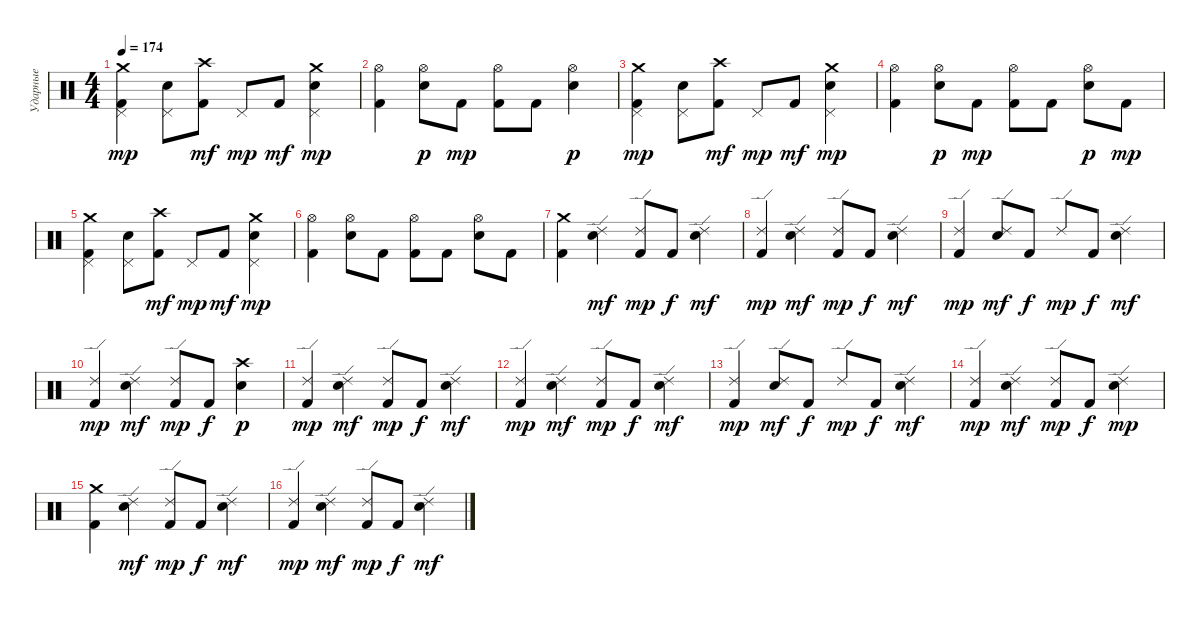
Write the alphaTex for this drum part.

\track ("Ударные" "Ударные") {instrument percussion}
\staff {score}
\articulation defaults
\ts (4 4)
\tempo 174
\clef neutral
\ks c
("Crash medium (hit)" "Kick (hit) 2" "Pedal Hi-Hat (hit)").4{dy mp} ("Electric Snare (hit)" "Pedal Hi-Hat (hit)").8 ("Crash high (hit)" "Kick (hit) 2").8{dy mf} "Pedal Hi-Hat (hit)".8{dy mp} "Kick (hit) 2".8{dy mf} ("Crash medium (hit)" "Electric Snare (hit)" "Pedal Hi-Hat (hit)").4{dy mp} |
("Hi-Hat (open)" "Kick (hit) 2").4 ("Hi-Hat (open)" "Electric Snare (hit)").8{dy p} "Kick (hit) 2".8{dy mp} ("Hi-Hat (open)" "Kick (hit) 2").8 "Kick (hit) 2".8 ("Hi-Hat (open)" "Electric Snare (hit)").4{dy p} |
("Crash medium (hit)" "Kick (hit) 2" "Pedal Hi-Hat (hit)").4{dy mp} ("Electric Snare (hit)" "Pedal Hi-Hat (hit)").8 ("Crash high (hit)" "Kick (hit) 2").8{dy mf} "Pedal Hi-Hat (hit)".8{dy mp} "Kick (hit) 2".8{dy mf} ("Crash medium (hit)" "Electric Snare (hit)" "Pedal Hi-Hat (hit)").4{dy mp} |
("Hi-Hat (open)" "Kick (hit) 2").4 ("Hi-Hat (open)" "Electric Snare (hit)").8{dy p} "Kick (hit) 2".8{dy mp} ("Hi-Hat (open)" "Kick (hit) 2").8 "Kick (hit) 2".8 ("Hi-Hat (open)" "Electric Snare (hit)").8{dy p} "Kick (hit) 2".8{dy mp} |
("Crash medium (hit)" "Kick (hit) 2" "Pedal Hi-Hat (hit)").4 ("Electric Snare (hit)" "Pedal Hi-Hat (hit)").8 ("Crash high (hit)" "Kick (hit) 2").8{dy mf} "Pedal Hi-Hat (hit)".8{dy mp} "Kick (hit) 2".8{dy mf} ("Crash medium (hit)" "Electric Snare (hit)" "Pedal Hi-Hat (hit)").4{dy mp} |
("Hi-Hat (open)" "Kick (hit) 2").4 ("Hi-Hat (open)" "Electric Snare (hit)").8 "Kick (hit) 2".8 ("Hi-Hat (open)" "Kick (hit) 2").8 "Kick (hit) 2".8 ("Hi-Hat (open)" "Electric Snare (hit)").8 "Kick (hit) 2".8 |
("Crash medium (hit)" "Kick (hit) 2").4 ("Ride (edge) 2" "Electric Snare (hit)").4{dy mf} ("Ride (edge) 2" "Kick (hit) 2").8{dy mp} "Kick (hit) 2".8{dy f} ("Ride (edge) 2" "Electric Snare (hit)").4{dy mf} |
("Ride (edge) 2" "Kick (hit) 2").4{dy mp} ("Ride (edge) 2" "Electric Snare (hit)").4{dy mf} ("Ride (edge) 2" "Kick (hit) 2").8{dy mp} "Kick (hit) 2".8{dy f} ("Ride (edge) 2" "Electric Snare (hit)").4{dy mf} |
("Ride (edge) 2" "Kick (hit) 2").4{dy mp} ("Ride (edge) 2" "Electric Snare (hit)").8{dy mf} "Kick (hit) 2".8{dy f} "Ride (edge) 2".8{dy mp} "Kick (hit) 2".8{dy f} ("Ride (edge) 2" "Electric Snare (hit)").4{dy mf} |
("Ride (edge) 2" "Kick (hit) 2").4{dy mp} ("Ride (edge) 2" "Electric Snare (hit)").4{dy mf} ("Ride (edge) 2" "Kick (hit) 2").8{dy mp} "Kick (hit) 2".8{dy f} ("Crash high (hit)" "Electric Snare (hit)").4{dy p} |
("Ride (edge) 2" "Kick (hit) 2").4{dy mp} ("Ride (edge) 2" "Electric Snare (hit)").4{dy mf} ("Ride (edge) 2" "Kick (hit) 2").8{dy mp} "Kick (hit) 2".8{dy f} ("Ride (edge) 2" "Electric Snare (hit)").4{dy mf} |
("Ride (edge) 2" "Kick (hit) 2").4{dy mp} ("Ride (edge) 2" "Electric Snare (hit)").4{dy mf} ("Ride (edge) 2" "Kick (hit) 2").8{dy mp} "Kick (hit) 2".8{dy f} ("Ride (edge) 2" "Electric Snare (hit)").4{dy mf} |
("Ride (edge) 2" "Kick (hit) 2").4{dy mp} ("Ride (edge) 2" "Electric Snare (hit)").8{dy mf} "Kick (hit) 2".8{dy f} "Ride (edge) 2".8{dy mp} "Kick (hit) 2".8{dy f} ("Ride (edge) 2" "Electric Snare (hit)").4{dy mf} |
("Ride (edge) 2" "Kick (hit) 2").4{dy mp} ("Ride (edge) 2" "Electric Snare (hit)").4{dy mf} ("Ride (edge) 2" "Kick (hit) 2").8{dy mp} "Kick (hit) 2".8{dy f} ("Ride (edge) 2" "Electric Snare (hit)").4{dy mp} |
("Crash medium (hit)" "Kick (hit) 2").4 ("Ride (edge) 2" "Electric Snare (hit)").4{dy mf} ("Ride (edge) 2" "Kick (hit) 2").8{dy mp} "Kick (hit) 2".8{dy f} ("Ride (edge) 2" "Electric Snare (hit)").4{dy mf} |
("Ride (edge) 2" "Kick (hit) 2").4{dy mp} ("Ride (edge) 2" "Electric Snare (hit)").4{dy mf} ("Ride (edge) 2" "Kick (hit) 2").8{dy mp} "Kick (hit) 2".8{dy f} ("Ride (edge) 2" "Electric Snare (hit)").4{dy mf}
